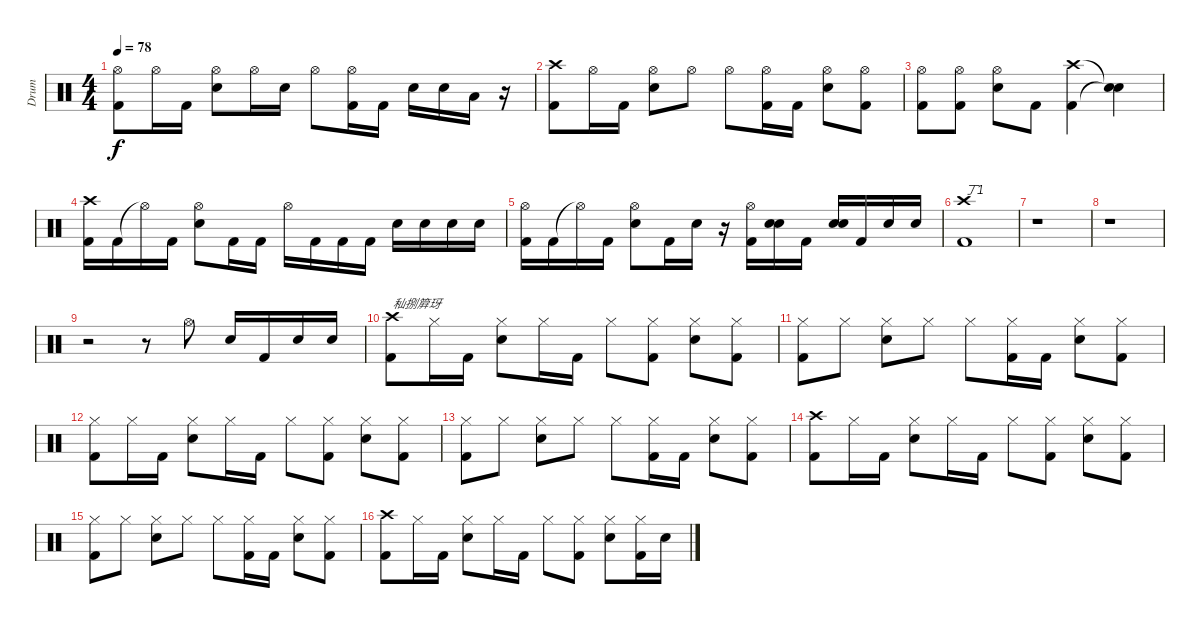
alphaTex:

\track ("Drum" "Drum") {instrument percussion}
\staff {score}
\articulation defaults
\ts (4 4)
\tempo 78
\clef neutral
\ks c
("Hi-Hat (open)" "Kick (hit) 2").8{dy f} "Hi-Hat (open)".16 "Kick (hit) 2".16 ("Hi-Hat (open)" "Snare (hit) 2").8 "Hi-Hat (open)".16 "Snare (hit) 2".16 "Hi-Hat (open)".8 ("Hi-Hat (open)" "Kick (hit) 2").16 "Kick (hit) 2".16 "Snare (hit) 2".16 "Snare (hit) 2".16 "Low Tom (hit)".16 r.16 |
("Crash high (hit)" "Kick (hit) 2").8 "Hi-Hat (open)".16 "Kick (hit) 2".16 ("Hi-Hat (open)" "Snare (hit) 2").8 "Hi-Hat (open)".8 "Hi-Hat (open)".8 ("Hi-Hat (open)" "Kick (hit) 2").16 "Kick (hit) 2".16 ("Hi-Hat (open)" "Snare (hit) 2").8 ("Hi-Hat (open)" "Kick (hit) 2").8 |
("Hi-Hat (open)" "Kick (hit) 2").8 ("Hi-Hat (open)" "Kick (hit) 2").8 ("Hi-Hat (open)" "Snare (hit) 2").8 "Kick (hit) 2".8 ("Crash high (hit)" "Kick (hit) 2").4 ("Snare (hit)"{t} "Snare (hit)"{t}).4 |
("Crash high (hit)" "Kick (hit) 2").16 "Kick (hit) 2".16 "Hi-Hat (open)"{t}.16 "Kick (hit) 2".16 ("Hi-Hat (open)" "Snare (hit) 2").8 "Kick (hit) 2".16 "Kick (hit) 2".16 "Hi-Hat (open)".16 "Kick (hit) 2".16 "Kick (hit) 2".16 "Kick (hit) 2".16 "Snare (hit) 2".16 "Snare (hit) 2".16 "Snare (hit) 2".16 "Snare (hit) 2".16 |
("Hi-Hat (open)" "Kick (hit) 2").16 "Kick (hit) 2".16 "Hi-Hat (open)"{t}.16 "Kick (hit) 2".16 ("Hi-Hat (open)" "Snare (hit) 2").8 "Kick (hit) 2".16 "Snare (hit) 2".16 r.16 ("Hi-Hat (open)" "Kick (hit) 2").16 ("Snare (hit) 2" "Snare (hit) 2").16 "Kick (hit) 2".16 ("Snare (hit) 2" "Snare (hit) 2").16 "Kick (hit) 2".16 "Snare (hit) 2".16 "Snare (hit) 2".16 |
("Crash high (hit)" "Kick (hit) 2").1{txt "丁"} |
r.1 |
r.1 |
r.2 r.8 "Hi-Hat (open)".8 "Snare (hit) 2".16 "Kick (hit) 2".16 "Snare (hit) 2".16 "Snare (hit) 2".16 |
("Crash high (hit)" "Kick (hit) 2").8{txt "秈捌簈玡"} "Hi-Hat (closed)".16 "Kick (hit) 2".16 ("Hi-Hat (closed)" "Snare (hit) 2").8 "Hi-Hat (closed)".16 "Kick (hit) 2".16 "Hi-Hat (closed)".8 ("Hi-Hat (closed)" "Kick (hit) 2").8 ("Hi-Hat (closed)" "Snare (hit) 2").8 ("Hi-Hat (closed)" "Kick (hit) 2").8 |
("Hi-Hat (closed)" "Kick (hit) 2").8 "Hi-Hat (closed)".8 ("Hi-Hat (closed)" "Snare (hit) 2").8 "Hi-Hat (closed)".8 "Hi-Hat (closed)".8 ("Hi-Hat (closed)" "Kick (hit) 2").16 "Kick (hit) 2".16 ("Hi-Hat (closed)" "Snare (hit) 2").8 ("Hi-Hat (closed)" "Kick (hit) 2").8 |
("Hi-Hat (closed)" "Kick (hit) 2").8 "Hi-Hat (closed)".16 "Kick (hit) 2".16 ("Hi-Hat (closed)" "Snare (hit) 2").8 "Hi-Hat (closed)".16 "Kick (hit) 2".16 "Hi-Hat (closed)".8 ("Hi-Hat (closed)" "Kick (hit) 2").8 ("Hi-Hat (closed)" "Snare (hit) 2").8 ("Hi-Hat (closed)" "Kick (hit) 2").8 |
("Hi-Hat (closed)" "Kick (hit) 2").8 "Hi-Hat (closed)".8 ("Hi-Hat (closed)" "Snare (hit) 2").8 "Hi-Hat (closed)".8 "Hi-Hat (closed)".8 ("Hi-Hat (closed)" "Kick (hit) 2").16 "Kick (hit) 2".16 ("Hi-Hat (closed)" "Snare (hit) 2").8 ("Hi-Hat (closed)" "Kick (hit) 2").8 |
("Crash high (hit)" "Kick (hit) 2").8 "Hi-Hat (closed)".16 "Kick (hit) 2".16 ("Hi-Hat (closed)" "Snare (hit) 2").8 "Hi-Hat (closed)".16 "Kick (hit) 2".16 "Hi-Hat (closed)".8 ("Hi-Hat (closed)" "Kick (hit) 2").8 ("Hi-Hat (closed)" "Snare (hit) 2").8 ("Hi-Hat (closed)" "Kick (hit) 2").8 |
("Hi-Hat (closed)" "Kick (hit) 2").8 "Hi-Hat (closed)".8 ("Hi-Hat (closed)" "Snare (hit) 2").8 "Hi-Hat (closed)".8 "Hi-Hat (closed)".8 ("Hi-Hat (closed)" "Kick (hit) 2").16 "Kick (hit) 2".16 ("Hi-Hat (closed)" "Snare (hit) 2").8 ("Hi-Hat (closed)" "Kick (hit) 2").8 |
("Crash high (hit)" "Kick (hit) 2").8 "Hi-Hat (closed)".16 "Kick (hit) 2".16 ("Hi-Hat (closed)" "Snare (hit) 2").8 "Hi-Hat (closed)".16 "Kick (hit) 2".16 "Hi-Hat (closed)".8 ("Hi-Hat (closed)" "Kick (hit) 2").8 ("Hi-Hat (closed)" "Snare (hit) 2").8 ("Hi-Hat (closed)" "Kick (hit) 2").16 "Snare (hit) 2".16
